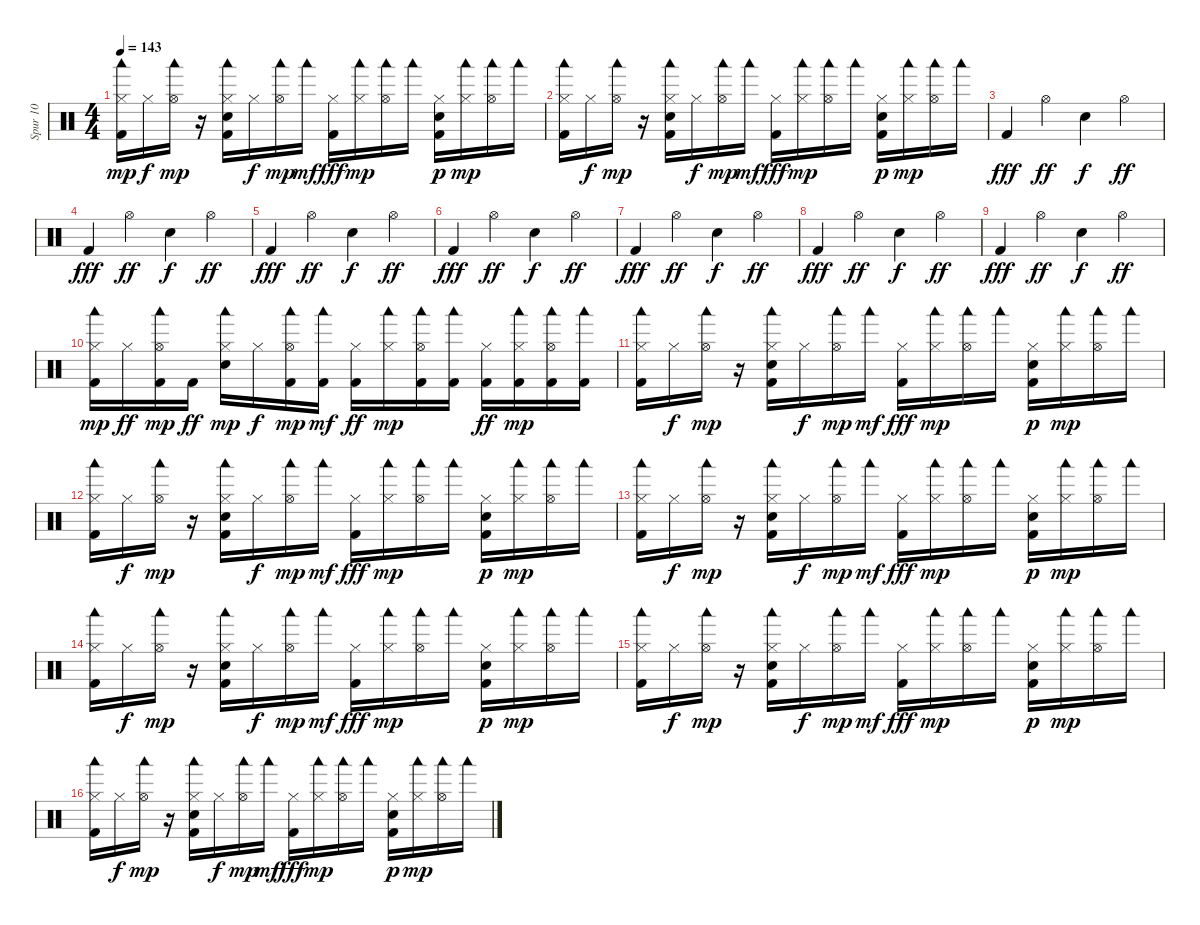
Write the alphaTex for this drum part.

\track ("Spur 10" "Spur 10") {instrument percussion}
\staff {score}
\articulation defaults
\ts (4 4)
\tempo 143
\clef neutral
\ks c
("Kick (hit) 2" "Hi-Hat (closed)" "Woodblock low (hit)").16{dy mp} "Hi-Hat (closed)".16{dy f} ("Hi-Hat (open)" "Woodblock low (hit)").16{dy mp} r.16 ("Kick (hit) 2" "Hi-Hat (closed)" "Electric Snare (hit)" "Woodblock low (hit)").16 "Hi-Hat (closed)".16{dy f} ("Hi-Hat (open)" "Woodblock low (hit)").16{dy mp} "Woodblock low (hit)".16{dy mf} ("Kick (hit) 2" "Hi-Hat (closed)").16{dy fff} ("Hi-Hat (closed)" "Woodblock low (hit)").16{dy mp} ("Hi-Hat (open)" "Woodblock low (hit)").16 "Woodblock low (hit)".16 ("Kick (hit) 2" "Hi-Hat (closed)" "Electric Snare (hit)").16{dy p} ("Hi-Hat (closed)" "Woodblock low (hit)").16{dy mp} ("Hi-Hat (open)" "Woodblock low (hit)").16 "Woodblock low (hit)".16 |
("Kick (hit) 2" "Hi-Hat (closed)" "Woodblock low (hit)").16 "Hi-Hat (closed)".16{dy f} ("Hi-Hat (open)" "Woodblock low (hit)").16{dy mp} r.16 ("Kick (hit) 2" "Hi-Hat (closed)" "Electric Snare (hit)" "Woodblock low (hit)").16 "Hi-Hat (closed)".16{dy f} ("Hi-Hat (open)" "Woodblock low (hit)").16{dy mp} "Woodblock low (hit)".16{dy mf} ("Kick (hit) 2" "Hi-Hat (closed)").16{dy fff} ("Hi-Hat (closed)" "Woodblock low (hit)").16{dy mp} ("Hi-Hat (open)" "Woodblock low (hit)").16 "Woodblock low (hit)".16 ("Kick (hit) 2" "Hi-Hat (closed)" "Electric Snare (hit)").16{dy p} ("Hi-Hat (closed)" "Woodblock low (hit)").16{dy mp} ("Hi-Hat (open)" "Woodblock low (hit)").16 "Woodblock low (hit)".16 |
"Kick (hit) 2".4{dy fff} "Hi-Hat (open)".4{dy ff} "Electric Snare (hit)".4{dy f} "Hi-Hat (open)".4{dy ff} |
"Kick (hit) 2".4{dy fff} "Hi-Hat (open)".4{dy ff} "Electric Snare (hit)".4{dy f} "Hi-Hat (open)".4{dy ff} |
"Kick (hit) 2".4{dy fff} "Hi-Hat (open)".4{dy ff} "Electric Snare (hit)".4{dy f} "Hi-Hat (open)".4{dy ff} |
"Kick (hit) 2".4{dy fff} "Hi-Hat (open)".4{dy ff} "Electric Snare (hit)".4{dy f} "Hi-Hat (open)".4{dy ff} |
"Kick (hit) 2".4{dy fff} "Hi-Hat (open)".4{dy ff} "Electric Snare (hit)".4{dy f} "Hi-Hat (open)".4{dy ff} |
"Kick (hit) 2".4{dy fff} "Hi-Hat (open)".4{dy ff} "Electric Snare (hit)".4{dy f} "Hi-Hat (open)".4{dy ff} |
"Kick (hit) 2".4{dy fff} "Hi-Hat (open)".4{dy ff} "Electric Snare (hit)".4{dy f} "Hi-Hat (open)".4{dy ff} |
("Kick (hit) 2" "Hi-Hat (closed)" "Woodblock low (hit)").16{dy mp} "Hi-Hat (closed)".16{dy ff} ("Kick (hit) 2" "Hi-Hat (open)" "Woodblock low (hit)").16{dy mp} "Kick (hit) 2".16{dy ff} ("Electric Snare (hit)" "Hi-Hat (closed)" "Woodblock low (hit)").16{dy mp} "Hi-Hat (closed)".16{dy f} ("Kick (hit) 2" "Hi-Hat (open)" "Woodblock low (hit)").16{dy mp} ("Kick (hit) 2" "Woodblock low (hit)").16{dy mf} ("Kick (hit) 2" "Hi-Hat (closed)").16{dy ff} ("Hi-Hat (closed)" "Woodblock low (hit)").16{dy mp} ("Kick (hit) 2" "Hi-Hat (open)" "Woodblock low (hit)").16 ("Kick (hit) 2" "Woodblock low (hit)").16 ("Kick (hit) 2" "Hi-Hat (closed)").16{dy ff} ("Kick (hit) 2" "Hi-Hat (closed)" "Woodblock low (hit)").16{dy mp} ("Kick (hit) 2" "Hi-Hat (open)" "Woodblock low (hit)").16 ("Kick (hit) 2" "Woodblock low (hit)").16 |
("Kick (hit) 2" "Hi-Hat (closed)" "Woodblock low (hit)").16 "Hi-Hat (closed)".16{dy f} ("Hi-Hat (open)" "Woodblock low (hit)").16{dy mp} r.16 ("Kick (hit) 2" "Hi-Hat (closed)" "Electric Snare (hit)" "Woodblock low (hit)").16 "Hi-Hat (closed)".16{dy f} ("Hi-Hat (open)" "Woodblock low (hit)").16{dy mp} "Woodblock low (hit)".16{dy mf} ("Kick (hit) 2" "Hi-Hat (closed)").16{dy fff} ("Hi-Hat (closed)" "Woodblock low (hit)").16{dy mp} ("Hi-Hat (open)" "Woodblock low (hit)").16 "Woodblock low (hit)".16 ("Kick (hit) 2" "Hi-Hat (closed)" "Electric Snare (hit)").16{dy p} ("Hi-Hat (closed)" "Woodblock low (hit)").16{dy mp} ("Hi-Hat (open)" "Woodblock low (hit)").16 "Woodblock low (hit)".16 |
("Hi-Hat (closed)" "Kick (hit) 2" "Woodblock low (hit)").16 "Hi-Hat (closed)".16{dy f} ("Hi-Hat (open)" "Woodblock low (hit)").16{dy mp} r.16 ("Hi-Hat (closed)" "Kick (hit) 2" "Electric Snare (hit)" "Woodblock low (hit)").16 "Hi-Hat (closed)".16{dy f} ("Hi-Hat (open)" "Woodblock low (hit)").16{dy mp} "Woodblock low (hit)".16{dy mf} ("Hi-Hat (closed)" "Kick (hit) 2").16{dy fff} ("Hi-Hat (closed)" "Woodblock low (hit)").16{dy mp} ("Hi-Hat (open)" "Woodblock low (hit)").16 "Woodblock low (hit)".16 ("Hi-Hat (closed)" "Kick (hit) 2" "Electric Snare (hit)").16{dy p} ("Hi-Hat (closed)" "Woodblock low (hit)").16{dy mp} ("Hi-Hat (open)" "Woodblock low (hit)").16 "Woodblock low (hit)".16 |
("Kick (hit) 2" "Hi-Hat (closed)" "Woodblock low (hit)").16 "Hi-Hat (closed)".16{dy f} ("Hi-Hat (open)" "Woodblock low (hit)").16{dy mp} r.16 ("Kick (hit) 2" "Hi-Hat (closed)" "Electric Snare (hit)" "Woodblock low (hit)").16 "Hi-Hat (closed)".16{dy f} ("Hi-Hat (open)" "Woodblock low (hit)").16{dy mp} "Woodblock low (hit)".16{dy mf} ("Kick (hit) 2" "Hi-Hat (closed)").16{dy fff} ("Hi-Hat (closed)" "Woodblock low (hit)").16{dy mp} ("Hi-Hat (open)" "Woodblock low (hit)").16 "Woodblock low (hit)".16 ("Kick (hit) 2" "Hi-Hat (closed)" "Electric Snare (hit)").16{dy p} ("Hi-Hat (closed)" "Woodblock low (hit)").16{dy mp} ("Hi-Hat (open)" "Woodblock low (hit)").16 "Woodblock low (hit)".16 |
("Kick (hit) 2" "Hi-Hat (closed)" "Woodblock low (hit)").16 "Hi-Hat (closed)".16{dy f} ("Hi-Hat (open)" "Woodblock low (hit)").16{dy mp} r.16 ("Kick (hit) 2" "Hi-Hat (closed)" "Electric Snare (hit)" "Woodblock low (hit)").16 "Hi-Hat (closed)".16{dy f} ("Hi-Hat (open)" "Woodblock low (hit)").16{dy mp} "Woodblock low (hit)".16{dy mf} ("Kick (hit) 2" "Hi-Hat (closed)").16{dy fff} ("Hi-Hat (closed)" "Woodblock low (hit)").16{dy mp} ("Hi-Hat (open)" "Woodblock low (hit)").16 "Woodblock low (hit)".16 ("Kick (hit) 2" "Hi-Hat (closed)" "Electric Snare (hit)").16{dy p} ("Hi-Hat (closed)" "Woodblock low (hit)").16{dy mp} ("Hi-Hat (open)" "Woodblock low (hit)").16 "Woodblock low (hit)".16 |
("Kick (hit) 2" "Hi-Hat (closed)" "Woodblock low (hit)").16 "Hi-Hat (closed)".16{dy f} ("Hi-Hat (open)" "Woodblock low (hit)").16{dy mp} r.16 ("Kick (hit) 2" "Hi-Hat (closed)" "Electric Snare (hit)" "Woodblock low (hit)").16 "Hi-Hat (closed)".16{dy f} ("Hi-Hat (open)" "Woodblock low (hit)").16{dy mp} "Woodblock low (hit)".16{dy mf} ("Kick (hit) 2" "Hi-Hat (closed)").16{dy fff} ("Hi-Hat (closed)" "Woodblock low (hit)").16{dy mp} ("Hi-Hat (open)" "Woodblock low (hit)").16 "Woodblock low (hit)".16 ("Kick (hit) 2" "Hi-Hat (closed)" "Electric Snare (hit)").16{dy p} ("Hi-Hat (closed)" "Woodblock low (hit)").16{dy mp} ("Hi-Hat (open)" "Woodblock low (hit)").16 "Woodblock low (hit)".16 |
("Kick (hit) 2" "Hi-Hat (closed)" "Woodblock low (hit)").16 "Hi-Hat (closed)".16{dy f} ("Hi-Hat (open)" "Woodblock low (hit)").16{dy mp} r.16 ("Kick (hit) 2" "Hi-Hat (closed)" "Electric Snare (hit)" "Woodblock low (hit)").16 "Hi-Hat (closed)".16{dy f} ("Hi-Hat (open)" "Woodblock low (hit)").16{dy mp} "Woodblock low (hit)".16{dy mf} ("Kick (hit) 2" "Hi-Hat (closed)").16{dy fff} ("Hi-Hat (closed)" "Woodblock low (hit)").16{dy mp} ("Hi-Hat (open)" "Woodblock low (hit)").16 "Woodblock low (hit)".16 ("Kick (hit) 2" "Hi-Hat (closed)" "Electric Snare (hit)").16{dy p} ("Hi-Hat (closed)" "Woodblock low (hit)").16{dy mp} ("Hi-Hat (open)" "Woodblock low (hit)").16 "Woodblock low (hit)".16
